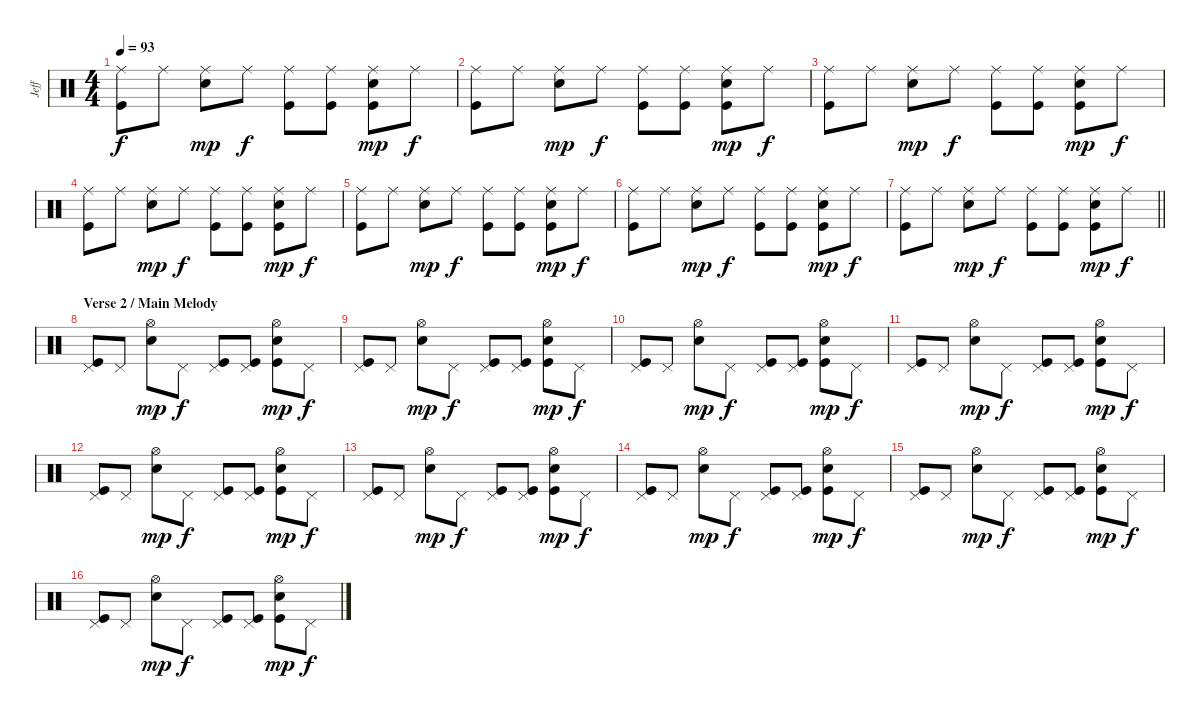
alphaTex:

\track ("Jeff" "Jeff") {instrument percussion}
\staff {score}
\articulation defaults
\ts (4 4)
\tempo 93
\clef neutral
\ks c
("Ride (middle)" "Kick (hit)").8{dy f} "Ride (middle)".8 ("Ride (middle)" "Snare (hit) 2").8{dy mp} "Ride (middle)".8{dy f} ("Ride (middle)" "Kick (hit)").8 ("Ride (middle)" "Kick (hit)").8 ("Ride (middle)" "Snare (hit) 2" "Kick (hit)").8{dy mp} "Ride (middle)".8{dy f} |
("Ride (middle)" "Kick (hit)").8 "Ride (middle)".8 ("Ride (middle)" "Snare (hit) 2").8{dy mp} "Ride (middle)".8{dy f} ("Ride (middle)" "Kick (hit)").8 ("Ride (middle)" "Kick (hit)").8 ("Ride (middle)" "Snare (hit) 2" "Kick (hit)").8{dy mp} "Ride (middle)".8{dy f} |
("Ride (middle)" "Kick (hit)").8 "Ride (middle)".8 ("Ride (middle)" "Snare (hit) 2").8{dy mp} "Ride (middle)".8{dy f} ("Ride (middle)" "Kick (hit)").8 ("Ride (middle)" "Kick (hit)").8 ("Ride (middle)" "Snare (hit) 2" "Kick (hit)").8{dy mp} "Ride (middle)".8{dy f} |
("Ride (middle)" "Kick (hit)").8 "Ride (middle)".8 ("Ride (middle)" "Snare (hit) 2").8{dy mp} "Ride (middle)".8{dy f} ("Ride (middle)" "Kick (hit)").8 ("Ride (middle)" "Kick (hit)").8 ("Ride (middle)" "Snare (hit) 2" "Kick (hit)").8{dy mp} "Ride (middle)".8{dy f} |
("Ride (middle)" "Kick (hit)").8 "Ride (middle)".8 ("Ride (middle)" "Snare (hit) 2").8{dy mp} "Ride (middle)".8{dy f} ("Ride (middle)" "Kick (hit)").8 ("Ride (middle)" "Kick (hit)").8 ("Ride (middle)" "Snare (hit) 2" "Kick (hit)").8{dy mp} "Ride (middle)".8{dy f} |
("Ride (middle)" "Kick (hit)").8 "Ride (middle)".8 ("Ride (middle)" "Snare (hit) 2").8{dy mp} "Ride (middle)".8{dy f} ("Ride (middle)" "Kick (hit)").8 ("Ride (middle)" "Kick (hit)").8 ("Ride (middle)" "Snare (hit) 2" "Kick (hit)").8{dy mp} "Ride (middle)".8{dy f} |
\barLineRight lightlight
("Ride (middle)" "Kick (hit)").8 "Ride (middle)".8 ("Ride (middle)" "Snare (hit) 2").8{dy mp} "Ride (middle)".8{dy f} ("Ride (middle)" "Kick (hit)").8 ("Ride (middle)" "Kick (hit)").8 ("Ride (middle)" "Snare (hit) 2" "Kick (hit)").8{dy mp} "Ride (middle)".8{dy f} |
\section ("" "Verse 2 / Main Melody")
("Pedal Hi-Hat (hit)" "Kick (hit)").8 "Pedal Hi-Hat (hit)".8 ("Hi-Hat (open)" "Snare (hit) 2").8{dy mp} "Pedal Hi-Hat (hit)".8{dy f} ("Pedal Hi-Hat (hit)" "Kick (hit)").8 ("Pedal Hi-Hat (hit)" "Kick (hit)").8 ("Hi-Hat (open)" "Snare (hit) 2" "Kick (hit)").8{dy mp} "Pedal Hi-Hat (hit)".8{dy f} |
("Pedal Hi-Hat (hit)" "Kick (hit)").8 "Pedal Hi-Hat (hit)".8 ("Hi-Hat (open)" "Snare (hit) 2").8{dy mp} "Pedal Hi-Hat (hit)".8{dy f} ("Pedal Hi-Hat (hit)" "Kick (hit)").8 ("Pedal Hi-Hat (hit)" "Kick (hit)").8 ("Hi-Hat (open)" "Snare (hit) 2" "Kick (hit)").8{dy mp} "Pedal Hi-Hat (hit)".8{dy f} |
("Pedal Hi-Hat (hit)" "Kick (hit)").8 "Pedal Hi-Hat (hit)".8 ("Hi-Hat (open)" "Snare (hit) 2").8{dy mp} "Pedal Hi-Hat (hit)".8{dy f} ("Pedal Hi-Hat (hit)" "Kick (hit)").8 ("Pedal Hi-Hat (hit)" "Kick (hit)").8 ("Hi-Hat (open)" "Snare (hit) 2" "Kick (hit)").8{dy mp} "Pedal Hi-Hat (hit)".8{dy f} |
("Pedal Hi-Hat (hit)" "Kick (hit)").8 "Pedal Hi-Hat (hit)".8 ("Hi-Hat (open)" "Snare (hit) 2").8{dy mp} "Pedal Hi-Hat (hit)".8{dy f} ("Pedal Hi-Hat (hit)" "Kick (hit)").8 ("Pedal Hi-Hat (hit)" "Kick (hit)").8 ("Hi-Hat (open)" "Snare (hit) 2" "Kick (hit)").8{dy mp} "Pedal Hi-Hat (hit)".8{dy f} |
("Pedal Hi-Hat (hit)" "Kick (hit)").8 "Pedal Hi-Hat (hit)".8 ("Hi-Hat (open)" "Snare (hit) 2").8{dy mp} "Pedal Hi-Hat (hit)".8{dy f} ("Pedal Hi-Hat (hit)" "Kick (hit)").8 ("Pedal Hi-Hat (hit)" "Kick (hit)").8 ("Hi-Hat (open)" "Snare (hit) 2" "Kick (hit)").8{dy mp} "Pedal Hi-Hat (hit)".8{dy f} |
("Pedal Hi-Hat (hit)" "Kick (hit)").8 "Pedal Hi-Hat (hit)".8 ("Hi-Hat (open)" "Snare (hit) 2").8{dy mp} "Pedal Hi-Hat (hit)".8{dy f} ("Pedal Hi-Hat (hit)" "Kick (hit)").8 ("Pedal Hi-Hat (hit)" "Kick (hit)").8 ("Hi-Hat (open)" "Snare (hit) 2" "Kick (hit)").8{dy mp} "Pedal Hi-Hat (hit)".8{dy f} |
("Pedal Hi-Hat (hit)" "Kick (hit)").8 "Pedal Hi-Hat (hit)".8 ("Hi-Hat (open)" "Snare (hit) 2").8{dy mp} "Pedal Hi-Hat (hit)".8{dy f} ("Pedal Hi-Hat (hit)" "Kick (hit)").8 ("Pedal Hi-Hat (hit)" "Kick (hit)").8 ("Hi-Hat (open)" "Snare (hit) 2" "Kick (hit)").8{dy mp} "Pedal Hi-Hat (hit)".8{dy f} |
("Pedal Hi-Hat (hit)" "Kick (hit)").8 "Pedal Hi-Hat (hit)".8 ("Hi-Hat (open)" "Snare (hit) 2").8{dy mp} "Pedal Hi-Hat (hit)".8{dy f} ("Pedal Hi-Hat (hit)" "Kick (hit)").8 ("Pedal Hi-Hat (hit)" "Kick (hit)").8 ("Hi-Hat (open)" "Snare (hit) 2" "Kick (hit)").8{dy mp} "Pedal Hi-Hat (hit)".8{dy f} |
("Pedal Hi-Hat (hit)" "Kick (hit)").8 "Pedal Hi-Hat (hit)".8 ("Hi-Hat (open)" "Snare (hit) 2").8{dy mp} "Pedal Hi-Hat (hit)".8{dy f} ("Pedal Hi-Hat (hit)" "Kick (hit)").8 ("Pedal Hi-Hat (hit)" "Kick (hit)").8 ("Hi-Hat (open)" "Snare (hit) 2" "Kick (hit)").8{dy mp} "Pedal Hi-Hat (hit)".8{dy f}
